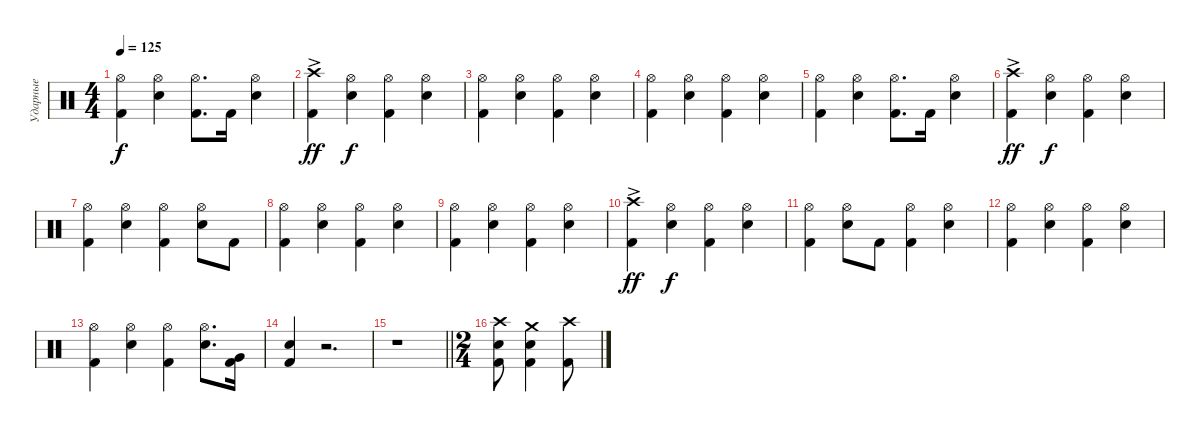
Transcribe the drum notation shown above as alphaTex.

\track ("Ударные" "Ударные") {instrument percussion}
\staff
\articulation defaults
\ts (4 4)
\tempo 125
\clef neutral
\ks c
("Kick (hit) 2" "Hi-Hat (open)").4{dy f} ("Snare (hit) 2" "Hi-Hat (open)").4 ("Kick (hit) 2" "Hi-Hat (open)").8{d} "Kick (hit) 2".16 ("Snare (hit) 2" "Hi-Hat (open)").4 |
("Kick (hit) 2" "Crash high (hit)"{ac}).4{dy ff} ("Snare (hit) 2" "Hi-Hat (open)").4{dy f} ("Kick (hit) 2" "Hi-Hat (open)").4 ("Snare (hit) 2" "Hi-Hat (open)").4 |
("Kick (hit) 2" "Hi-Hat (open)").4 ("Snare (hit) 2" "Hi-Hat (open)").4 ("Kick (hit) 2" "Hi-Hat (open)").4 ("Snare (hit) 2" "Hi-Hat (open)").4 |
("Kick (hit) 2" "Hi-Hat (open)").4 ("Snare (hit) 2" "Hi-Hat (open)").4 ("Kick (hit) 2" "Hi-Hat (open)").4 ("Snare (hit) 2" "Hi-Hat (open)").4 |
("Kick (hit) 2" "Hi-Hat (open)").4 ("Snare (hit) 2" "Hi-Hat (open)").4 ("Kick (hit) 2" "Hi-Hat (open)").8{d} "Kick (hit) 2".16 ("Snare (hit) 2" "Hi-Hat (open)").4 |
("Kick (hit) 2" "Crash high (hit)"{ac}).4{dy ff} ("Snare (hit) 2" "Hi-Hat (open)").4{dy f} ("Kick (hit) 2" "Hi-Hat (open)").4 ("Snare (hit) 2" "Hi-Hat (open)").4 |
("Kick (hit) 2" "Hi-Hat (open)").4 ("Snare (hit) 2" "Hi-Hat (open)").4 ("Kick (hit) 2" "Hi-Hat (open)").4 ("Snare (hit) 2" "Hi-Hat (open)").8 "Kick (hit) 2".8 |
("Kick (hit) 2" "Hi-Hat (open)").4 ("Snare (hit) 2" "Hi-Hat (open)").4 ("Kick (hit) 2" "Hi-Hat (open)").4 ("Snare (hit) 2" "Hi-Hat (open)").4 |
("Kick (hit) 2" "Hi-Hat (open)").4 ("Snare (hit) 2" "Hi-Hat (open)").4 ("Kick (hit) 2" "Hi-Hat (open)").4 ("Snare (hit) 2" "Hi-Hat (open)").4 |
("Kick (hit) 2" "Crash high (hit)"{ac}).4{dy ff} ("Snare (hit) 2" "Hi-Hat (open)").4{dy f} ("Kick (hit) 2" "Hi-Hat (open)").4 ("Snare (hit) 2" "Hi-Hat (open)").4 |
("Kick (hit) 2" "Hi-Hat (open)").4 ("Snare (hit) 2" "Hi-Hat (open)").8 "Kick (hit) 2".8 ("Kick (hit) 2" "Hi-Hat (open)").4 ("Snare (hit) 2" "Hi-Hat (open)").4 |
("Kick (hit) 2" "Hi-Hat (open)").4 ("Snare (hit) 2" "Hi-Hat (open)").4 ("Kick (hit) 2" "Hi-Hat (open)").4 ("Snare (hit) 2" "Hi-Hat (open)").4 |
("Kick (hit) 2" "Hi-Hat (open)").4 ("Snare (hit) 2" "Hi-Hat (open)").4 ("Kick (hit) 2" "Hi-Hat (open)").4 ("Snare (hit) 2" "Hi-Hat (open)").8{d} ("Kick (hit) 2" "Very Low Tom (hit)").16 |
("Kick (hit) 2" "Snare (hit) 2").4 r.2{d} |
\barLineRight lightlight
r.1 |
\ts (2 4)
("Kick (hit) 2" "Snare (hit) 2" "Crash high (hit)").8 ("Kick (hit) 2" "Snare (hit) 2" "Crash medium (hit)").4 ("Kick (hit) 2" "Crash high (hit)").8
